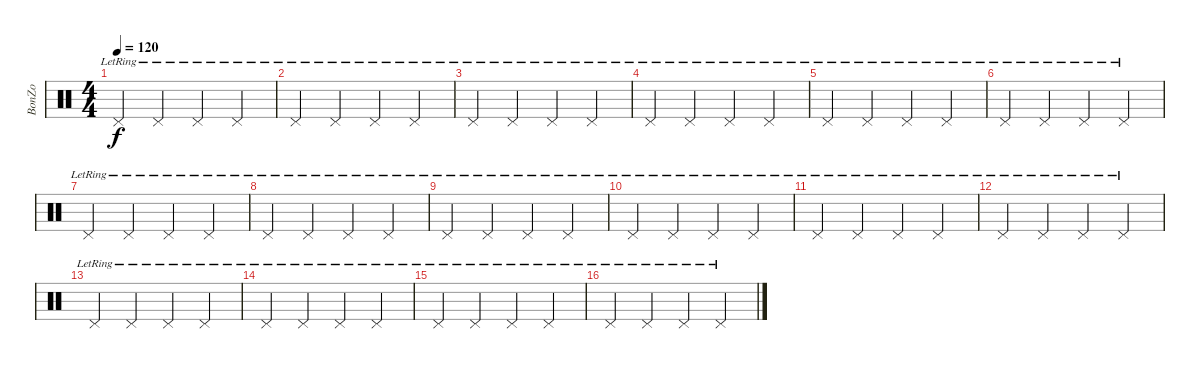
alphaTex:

\track ("BonZo" "BonZo") {instrument percussion}
\staff {score}
\articulation defaults
\ts (4 4)
\tempo 120
\clef neutral
\ks c "Pedal Hi-Hat (hit)"{lr}.4{dy f} "Pedal Hi-Hat (hit)"{lr}.4 "Pedal Hi-Hat (hit)"{lr}.4 "Pedal Hi-Hat (hit)"{lr}.4
|
"Pedal Hi-Hat (hit)"{lr}.4 "Pedal Hi-Hat (hit)"{lr}.4 "Pedal Hi-Hat (hit)"{lr}.4 "Pedal Hi-Hat (hit)"{lr}.4 |
"Pedal Hi-Hat (hit)"{lr}.4 "Pedal Hi-Hat (hit)"{lr}.4 "Pedal Hi-Hat (hit)"{lr}.4 "Pedal Hi-Hat (hit)"{lr}.4 |
"Pedal Hi-Hat (hit)"{lr}.4 "Pedal Hi-Hat (hit)"{lr}.4 "Pedal Hi-Hat (hit)"{lr}.4 "Pedal Hi-Hat (hit)"{lr}.4 |
"Pedal Hi-Hat (hit)"{lr}.4 "Pedal Hi-Hat (hit)"{lr}.4 "Pedal Hi-Hat (hit)"{lr}.4 "Pedal Hi-Hat (hit)"{lr}.4 |
"Pedal Hi-Hat (hit)"{lr}.4 "Pedal Hi-Hat (hit)"{lr}.4 "Pedal Hi-Hat (hit)"{lr}.4 "Pedal Hi-Hat (hit)"{lr}.4 |
"Pedal Hi-Hat (hit)"{lr}.4 "Pedal Hi-Hat (hit)"{lr}.4 "Pedal Hi-Hat (hit)"{lr}.4 "Pedal Hi-Hat (hit)"{lr}.4 |
"Pedal Hi-Hat (hit)"{lr}.4 "Pedal Hi-Hat (hit)"{lr}.4 "Pedal Hi-Hat (hit)"{lr}.4 "Pedal Hi-Hat (hit)"{lr}.4 |
"Pedal Hi-Hat (hit)"{lr}.4 "Pedal Hi-Hat (hit)"{lr}.4 "Pedal Hi-Hat (hit)"{lr}.4 "Pedal Hi-Hat (hit)"{lr}.4 |
"Pedal Hi-Hat (hit)"{lr}.4 "Pedal Hi-Hat (hit)"{lr}.4 "Pedal Hi-Hat (hit)"{lr}.4 "Pedal Hi-Hat (hit)"{lr}.4 |
"Pedal Hi-Hat (hit)"{lr}.4 "Pedal Hi-Hat (hit)"{lr}.4 "Pedal Hi-Hat (hit)"{lr}.4 "Pedal Hi-Hat (hit)"{lr}.4 |
"Pedal Hi-Hat (hit)"{lr}.4 "Pedal Hi-Hat (hit)"{lr}.4 "Pedal Hi-Hat (hit)"{lr}.4 "Pedal Hi-Hat (hit)"{lr}.4 |
"Pedal Hi-Hat (hit)"{lr}.4 "Pedal Hi-Hat (hit)"{lr}.4 "Pedal Hi-Hat (hit)"{lr}.4 "Pedal Hi-Hat (hit)"{lr}.4 |
"Pedal Hi-Hat (hit)"{lr}.4 "Pedal Hi-Hat (hit)"{lr}.4 "Pedal Hi-Hat (hit)"{lr}.4 "Pedal Hi-Hat (hit)"{lr}.4 |
"Pedal Hi-Hat (hit)"{lr}.4 "Pedal Hi-Hat (hit)"{lr}.4 "Pedal Hi-Hat (hit)"{lr}.4 "Pedal Hi-Hat (hit)"{lr}.4 |
"Pedal Hi-Hat (hit)"{lr}.4 "Pedal Hi-Hat (hit)"{lr}.4 "Pedal Hi-Hat (hit)"{lr}.4 "Pedal Hi-Hat (hit)"{lr}.4
